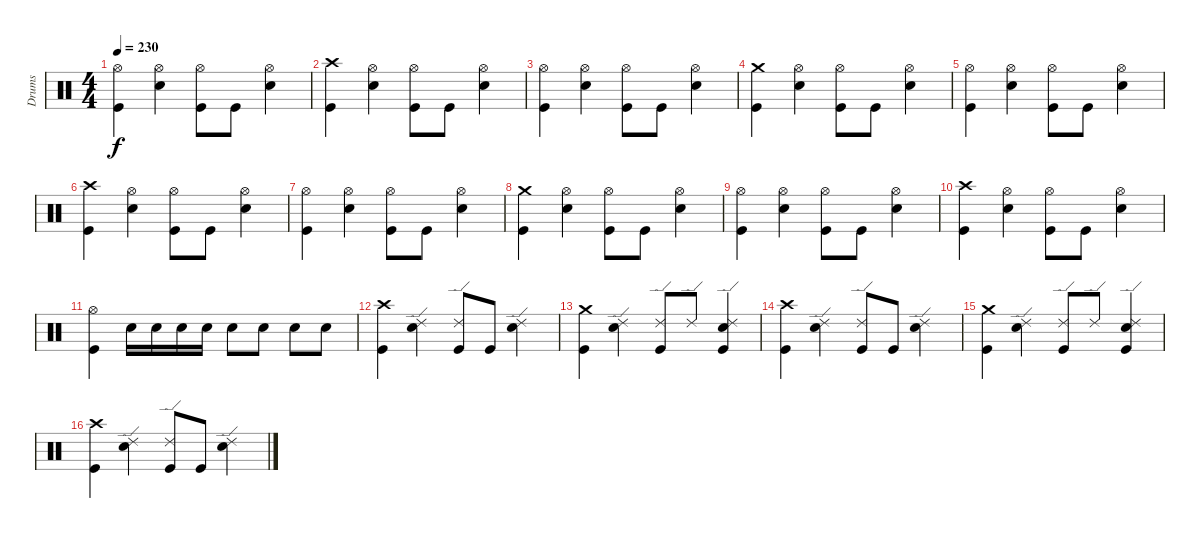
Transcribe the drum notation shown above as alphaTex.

\track ("Drums" "Drums") {instrument percussion}
\staff {score}
\articulation defaults
\ts (4 4)
\tempo 230
\clef neutral
\ks c
("Hi-Hat (open)" "Kick (hit)").4{dy f} ("Hi-Hat (open)" "Snare (hit) 2").4 ("Hi-Hat (open)" "Kick (hit)").8 "Kick (hit)".8 ("Hi-Hat (open)" "Snare (hit) 2").4 |
("Crash high (hit)" "Kick (hit)").4 ("Hi-Hat (open)" "Snare (hit) 2").4 ("Hi-Hat (open)" "Kick (hit)").8 "Kick (hit)".8 ("Hi-Hat (open)" "Snare (hit) 2").4 |
("Hi-Hat (open)" "Kick (hit)").4 ("Hi-Hat (open)" "Snare (hit) 2").4 ("Hi-Hat (open)" "Kick (hit)").8 "Kick (hit)".8 ("Hi-Hat (open)" "Snare (hit) 2").4 |
("Crash medium (hit)" "Kick (hit)").4 ("Hi-Hat (open)" "Snare (hit) 2").4 ("Hi-Hat (open)" "Kick (hit)").8 "Kick (hit)".8 ("Hi-Hat (open)" "Snare (hit) 2").4 |
("Hi-Hat (open)" "Kick (hit)").4 ("Hi-Hat (open)" "Snare (hit) 2").4 ("Hi-Hat (open)" "Kick (hit)").8 "Kick (hit)".8 ("Hi-Hat (open)" "Snare (hit) 2").4 |
("Crash high (hit)" "Kick (hit)").4 ("Hi-Hat (open)" "Snare (hit) 2").4 ("Hi-Hat (open)" "Kick (hit)").8 "Kick (hit)".8 ("Hi-Hat (open)" "Snare (hit) 2").4 |
("Hi-Hat (open)" "Kick (hit)").4 ("Hi-Hat (open)" "Snare (hit) 2").4 ("Hi-Hat (open)" "Kick (hit)").8 "Kick (hit)".8 ("Hi-Hat (open)" "Snare (hit) 2").4 |
("Crash medium (hit)" "Kick (hit)").4 ("Hi-Hat (open)" "Snare (hit) 2").4 ("Hi-Hat (open)" "Kick (hit)").8 "Kick (hit)".8 ("Hi-Hat (open)" "Snare (hit) 2").4 |
("Hi-Hat (open)" "Kick (hit)").4 ("Hi-Hat (open)" "Snare (hit) 2").4 ("Hi-Hat (open)" "Kick (hit)").8 "Kick (hit)".8 ("Hi-Hat (open)" "Snare (hit) 2").4 |
("Crash high (hit)" "Kick (hit)").4 ("Hi-Hat (open)" "Snare (hit) 2").4 ("Hi-Hat (open)" "Kick (hit)").8 "Kick (hit)".8 ("Hi-Hat (open)" "Snare (hit) 2").4 |
("Hi-Hat (open)" "Kick (hit)").4 "Snare (hit) 2".16 "Snare (hit) 2".16 "Snare (hit) 2".16 "Snare (hit) 2".16 "Snare (hit) 2".8 "Snare (hit) 2".8 "Snare (hit) 2".8 "Snare (hit) 2".8 |
("Crash high (hit)" "Kick (hit)").4 ("Ride (edge) 2" "Snare (hit) 2").4 ("Ride (edge) 2" "Kick (hit)").8 "Kick (hit)".8 ("Ride (edge) 2" "Snare (hit) 2").4 |
("Crash medium (hit)" "Kick (hit)").4 ("Ride (edge) 2" "Snare (hit) 2").4 ("Ride (edge) 2" "Kick (hit)").8 "Ride (edge) 2".8 ("Ride (edge) 2" "Snare (hit) 2" "Kick (hit)").4 |
("Crash high (hit)" "Kick (hit)").4 ("Ride (edge) 2" "Snare (hit) 2").4 ("Ride (edge) 2" "Kick (hit)").8 "Kick (hit)".8 ("Ride (edge) 2" "Snare (hit) 2").4 |
("Crash medium (hit)" "Kick (hit)").4 ("Ride (edge) 2" "Snare (hit) 2").4 ("Ride (edge) 2" "Kick (hit)").8 "Ride (edge) 2".8 ("Ride (edge) 2" "Snare (hit) 2" "Kick (hit)").4 |
("Crash high (hit)" "Kick (hit)").4 ("Ride (edge) 2" "Snare (hit) 2").4 ("Ride (edge) 2" "Kick (hit)").8 "Kick (hit)".8 ("Ride (edge) 2" "Snare (hit) 2").4
